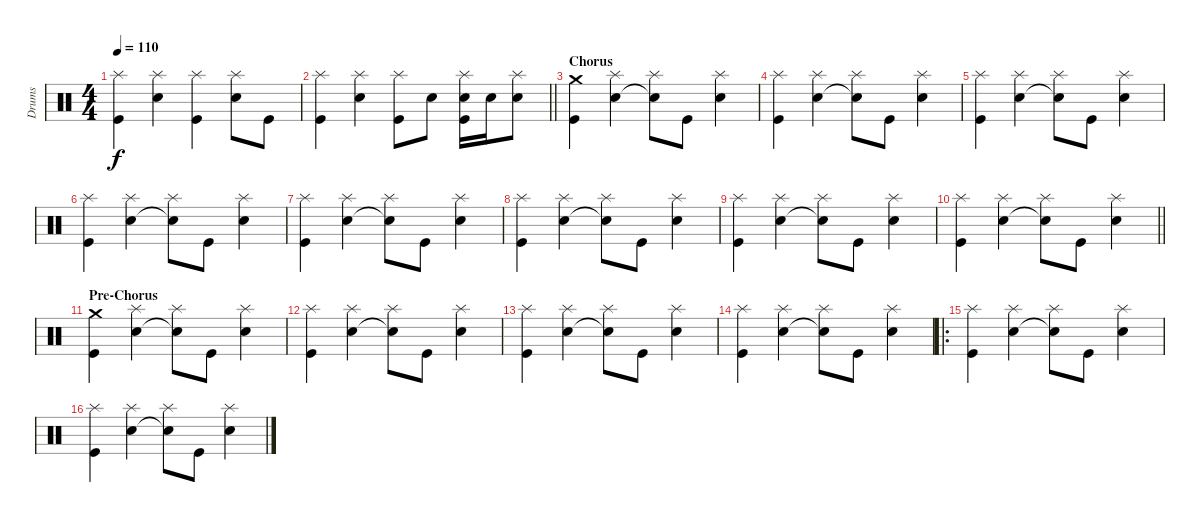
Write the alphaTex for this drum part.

\track ("Drums" "Drums") {instrument percussion}
\staff {score}
\articulation defaults
\ts (4 4)
\tempo 110
\clef neutral
\ks c
("Kick (hit)" "Splash (hit)").4{dy f} ("Electric Snare (hit)" "Splash (hit)").4 ("Kick (hit)" "Splash (hit)").4 ("Electric Snare (hit)" "Splash (hit)").8 "Kick (hit)".8 |
\barLineRight lightlight
("Kick (hit)" "Splash (hit)").4 ("Electric Snare (hit)" "Splash (hit)").4 ("Kick (hit)" "Splash (hit)").8 "Electric Snare (hit)".8 ("Kick (hit)" "Electric Snare (hit)" "Splash (hit)").16 "Electric Snare (hit)".16 ("Electric Snare (hit)" "Splash (hit)").8 |
\section ("" "Chorus")
("Kick (hit)" "Crash medium (hit)").4 ("Electric Snare (hit)" "Splash (hit)").4 ("Electric Snare (hit)"{t} "Splash (hit)").8 "Kick (hit)".8 ("Electric Snare (hit)" "Splash (hit)").4 |
("Kick (hit)" "Splash (hit)").4 ("Electric Snare (hit)" "Splash (hit)").4 ("Electric Snare (hit)"{t} "Splash (hit)").8 "Kick (hit)".8 ("Electric Snare (hit)" "Splash (hit)").4 |
("Kick (hit)" "Splash (hit)").4 ("Electric Snare (hit)" "Splash (hit)").4 ("Electric Snare (hit)"{t} "Splash (hit)").8 "Kick (hit)".8 ("Electric Snare (hit)" "Splash (hit)").4 |
("Kick (hit)" "Splash (hit)").4 ("Electric Snare (hit)" "Splash (hit)").4 ("Electric Snare (hit)"{t} "Splash (hit)").8 "Kick (hit)".8 ("Electric Snare (hit)" "Splash (hit)").4 |
("Kick (hit)" "Splash (hit)").4 ("Electric Snare (hit)" "Splash (hit)").4 ("Electric Snare (hit)"{t} "Splash (hit)").8 "Kick (hit)".8 ("Electric Snare (hit)" "Splash (hit)").4 |
("Kick (hit)" "Splash (hit)").4 ("Electric Snare (hit)" "Splash (hit)").4 ("Electric Snare (hit)"{t} "Splash (hit)").8 "Kick (hit)".8 ("Electric Snare (hit)" "Splash (hit)").4 |
("Kick (hit)" "Splash (hit)").4 ("Electric Snare (hit)" "Splash (hit)").4 ("Electric Snare (hit)"{t} "Splash (hit)").8 "Kick (hit)".8 ("Electric Snare (hit)" "Splash (hit)").4 |
\barLineRight lightlight
("Kick (hit)" "Splash (hit)").4 ("Electric Snare (hit)" "Splash (hit)").4 ("Electric Snare (hit)"{t} "Splash (hit)").8 "Kick (hit)".8 ("Electric Snare (hit)" "Splash (hit)").4 |
\section ("" "Pre-Chorus")
("Kick (hit)" "Crash medium (hit)").4 ("Electric Snare (hit)" "Splash (hit)").4 ("Electric Snare (hit)"{t} "Splash (hit)").8 "Kick (hit)".8 ("Electric Snare (hit)" "Splash (hit)").4 |
("Kick (hit)" "Splash (hit)").4 ("Electric Snare (hit)" "Splash (hit)").4 ("Electric Snare (hit)"{t} "Splash (hit)").8 "Kick (hit)".8 ("Electric Snare (hit)" "Splash (hit)").4 |
("Kick (hit)" "Splash (hit)").4 ("Electric Snare (hit)" "Splash (hit)").4 ("Electric Snare (hit)"{t} "Splash (hit)").8 "Kick (hit)".8 ("Electric Snare (hit)" "Splash (hit)").4 |
("Kick (hit)" "Splash (hit)").4 ("Electric Snare (hit)" "Splash (hit)").4 ("Electric Snare (hit)"{t} "Splash (hit)").8 "Kick (hit)".8 ("Electric Snare (hit)" "Splash (hit)").4 |
\ro
("Kick (hit)" "Splash (hit)").4 ("Electric Snare (hit)" "Splash (hit)").4 ("Electric Snare (hit)"{t} "Splash (hit)").8 "Kick (hit)".8 ("Electric Snare (hit)" "Splash (hit)").4 |
("Kick (hit)" "Splash (hit)").4 ("Electric Snare (hit)" "Splash (hit)").4 ("Electric Snare (hit)"{t} "Splash (hit)").8 "Kick (hit)".8 ("Electric Snare (hit)" "Splash (hit)").4
